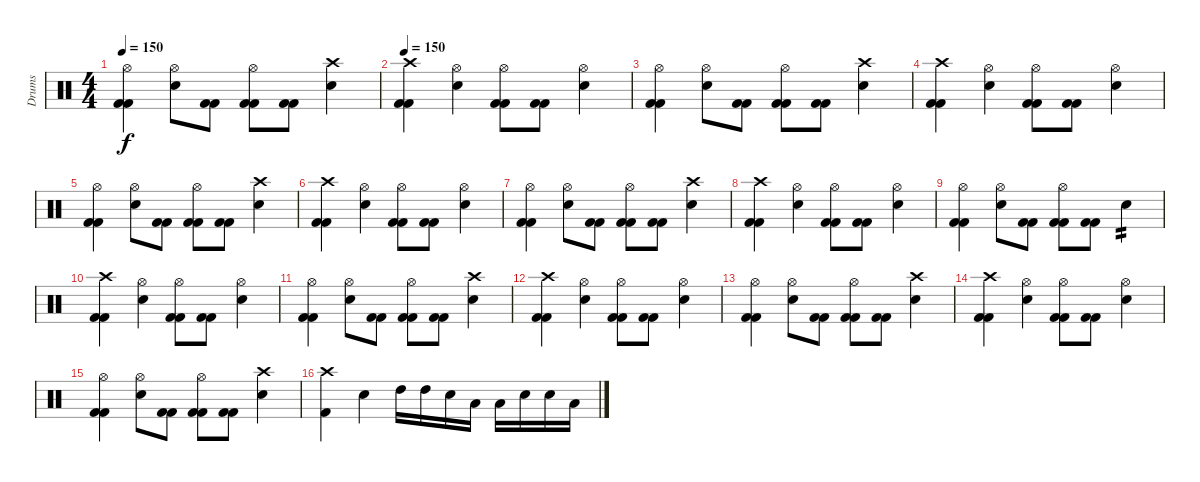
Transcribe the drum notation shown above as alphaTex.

\track ("Drums" "Drums") {instrument percussion}
\staff {score}
\articulation defaults
\ts (4 4)
\tempo 150
\clef neutral
\ks c
("Hi-Hat (open)" "Kick (hit) 2" "Kick (hit) 2").4{dy f} ("Electric Snare (hit)" "Hi-Hat (open)").8 ("Kick (hit) 2" "Kick (hit) 2").8 ("Kick (hit) 2" "Kick (hit) 2" "Hi-Hat (open)").8 ("Kick (hit) 2" "Kick (hit) 2").8 ("Electric Snare (hit)" "Crash high (hit)").4 |
\tempo 150
("Crash high (hit)" "Kick (hit) 2" "Kick (hit) 2").4 ("Electric Snare (hit)" "Hi-Hat (open)").4 ("Hi-Hat (open)" "Kick (hit) 2" "Kick (hit) 2").8 ("Kick (hit) 2" "Kick (hit) 2").8 ("Electric Snare (hit)" "Hi-Hat (open)").4 |
("Hi-Hat (open)" "Kick (hit) 2" "Kick (hit) 2").4 ("Electric Snare (hit)" "Hi-Hat (open)").8 ("Kick (hit) 2" "Kick (hit) 2").8 ("Kick (hit) 2" "Kick (hit) 2" "Hi-Hat (open)").8 ("Kick (hit) 2" "Kick (hit) 2").8 ("Electric Snare (hit)" "Crash high (hit)").4 |
("Crash high (hit)" "Kick (hit) 2" "Kick (hit) 2").4 ("Electric Snare (hit)" "Hi-Hat (open)").4 ("Hi-Hat (open)" "Kick (hit) 2" "Kick (hit) 2").8 ("Kick (hit) 2" "Kick (hit) 2").8 ("Electric Snare (hit)" "Hi-Hat (open)").4 |
("Hi-Hat (open)" "Kick (hit) 2" "Kick (hit) 2").4 ("Electric Snare (hit)" "Hi-Hat (open)").8 ("Kick (hit) 2" "Kick (hit) 2").8 ("Kick (hit) 2" "Kick (hit) 2" "Hi-Hat (open)").8 ("Kick (hit) 2" "Kick (hit) 2").8 ("Electric Snare (hit)" "Crash high (hit)").4 |
("Crash high (hit)" "Kick (hit) 2" "Kick (hit) 2").4 ("Electric Snare (hit)" "Hi-Hat (open)").4 ("Hi-Hat (open)" "Kick (hit) 2" "Kick (hit) 2").8 ("Kick (hit) 2" "Kick (hit) 2").8 ("Electric Snare (hit)" "Hi-Hat (open)").4 |
("Hi-Hat (open)" "Kick (hit) 2" "Kick (hit) 2").4 ("Electric Snare (hit)" "Hi-Hat (open)").8 ("Kick (hit) 2" "Kick (hit) 2").8 ("Kick (hit) 2" "Kick (hit) 2" "Hi-Hat (open)").8 ("Kick (hit) 2" "Kick (hit) 2").8 ("Electric Snare (hit)" "Crash high (hit)").4 |
("Crash high (hit)" "Kick (hit) 2" "Kick (hit) 2").4 ("Electric Snare (hit)" "Hi-Hat (open)").4 ("Hi-Hat (open)" "Kick (hit) 2" "Kick (hit) 2").8 ("Kick (hit) 2" "Kick (hit) 2").8 ("Electric Snare (hit)" "Hi-Hat (open)").4 |
("Hi-Hat (open)" "Kick (hit) 2" "Kick (hit) 2").4 ("Electric Snare (hit)" "Hi-Hat (open)").8 ("Kick (hit) 2" "Kick (hit) 2").8 ("Kick (hit) 2" "Kick (hit) 2" "Hi-Hat (open)").8 ("Kick (hit) 2" "Kick (hit) 2").8 "Electric Snare (hit)".4{tp 2} |
("Crash high (hit)" "Kick (hit) 2" "Kick (hit) 2").4 ("Electric Snare (hit)" "Hi-Hat (open)").4 ("Hi-Hat (open)" "Kick (hit) 2" "Kick (hit) 2").8 ("Kick (hit) 2" "Kick (hit) 2").8 ("Electric Snare (hit)" "Hi-Hat (open)").4 |
("Hi-Hat (open)" "Kick (hit) 2" "Kick (hit) 2").4 ("Electric Snare (hit)" "Hi-Hat (open)").8 ("Kick (hit) 2" "Kick (hit) 2").8 ("Kick (hit) 2" "Kick (hit) 2" "Hi-Hat (open)").8 ("Kick (hit) 2" "Kick (hit) 2").8 ("Electric Snare (hit)" "Crash high (hit)").4 |
("Crash high (hit)" "Kick (hit) 2" "Kick (hit) 2").4 ("Electric Snare (hit)" "Hi-Hat (open)").4 ("Hi-Hat (open)" "Kick (hit) 2" "Kick (hit) 2").8 ("Kick (hit) 2" "Kick (hit) 2").8 ("Electric Snare (hit)" "Hi-Hat (open)").4 |
("Hi-Hat (open)" "Kick (hit) 2" "Kick (hit) 2").4 ("Electric Snare (hit)" "Hi-Hat (open)").8 ("Kick (hit) 2" "Kick (hit) 2").8 ("Kick (hit) 2" "Kick (hit) 2" "Hi-Hat (open)").8 ("Kick (hit) 2" "Kick (hit) 2").8 ("Electric Snare (hit)" "Crash high (hit)").4 |
("Crash high (hit)" "Kick (hit) 2" "Kick (hit) 2").4 ("Electric Snare (hit)" "Hi-Hat (open)").4 ("Hi-Hat (open)" "Kick (hit) 2" "Kick (hit) 2").8 ("Kick (hit) 2" "Kick (hit) 2").8 ("Electric Snare (hit)" "Hi-Hat (open)").4 |
("Hi-Hat (open)" "Kick (hit) 2" "Kick (hit) 2").4 ("Electric Snare (hit)" "Hi-Hat (open)").8 ("Kick (hit) 2" "Kick (hit) 2").8 ("Kick (hit) 2" "Kick (hit) 2" "Hi-Hat (open)").8 ("Kick (hit) 2" "Kick (hit) 2").8 ("Electric Snare (hit)" "Crash high (hit)").4 |
("Crash high (hit)" "Kick (hit) 2").4 "Electric Snare (hit)".4 "High Tom (hit)".16 "High Tom (hit)".16 "Electric Snare (hit)".16 "Low Tom (hit)".16 "Low Tom (hit)".16 "Electric Snare (hit)".16 "Electric Snare (hit)".16 "Low Floor Tom (hit)".16
